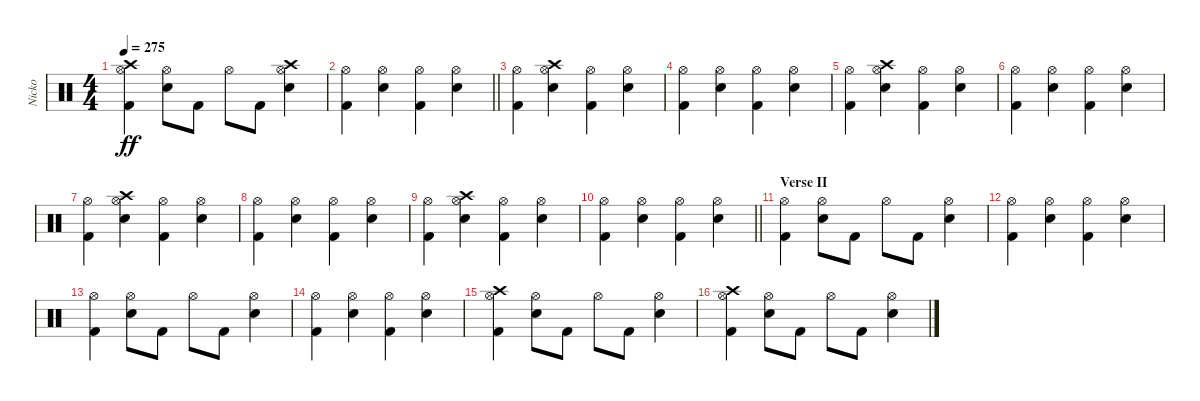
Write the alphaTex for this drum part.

\track ("Nicko" "Nicko") {instrument percussion}
\staff {score}
\articulation defaults
\ts (4 4)
\tempo 275
\clef neutral
\ks c
("Kick (hit) 2" "Hi-Hat (open)" "Crash high (hit)").4{dy ff} ("Snare (hit) 2" "Hi-Hat (open)").8 "Kick (hit) 2".8 "Hi-Hat (open)".8 "Kick (hit) 2".8 ("Snare (hit) 2" "Hi-Hat (open)" "Crash high (hit)").4 |
\barLineRight lightlight
("Kick (hit) 2" "Hi-Hat (open)").4 ("Snare (hit) 2" "Hi-Hat (open)").4 ("Kick (hit) 2" "Hi-Hat (open)").4 ("Snare (hit) 2" "Hi-Hat (open)").4 |
\section ("" "")
("Kick (hit) 2" "Hi-Hat (open)").4 ("Snare (hit) 2" "Hi-Hat (open)" "Crash high (hit)").4 ("Kick (hit) 2" "Hi-Hat (open)").4 ("Snare (hit) 2" "Hi-Hat (open)").4 |
("Kick (hit) 2" "Hi-Hat (open)").4 ("Snare (hit) 2" "Hi-Hat (open)").4 ("Kick (hit) 2" "Hi-Hat (open)").4 ("Snare (hit) 2" "Hi-Hat (open)").4 |
("Kick (hit) 2" "Hi-Hat (open)").4 ("Snare (hit) 2" "Hi-Hat (open)" "Crash high (hit)").4 ("Kick (hit) 2" "Hi-Hat (open)").4 ("Snare (hit) 2" "Hi-Hat (open)").4 |
("Kick (hit) 2" "Hi-Hat (open)").4 ("Snare (hit) 2" "Hi-Hat (open)").4 ("Kick (hit) 2" "Hi-Hat (open)").4 ("Snare (hit) 2" "Hi-Hat (open)").4 |
("Kick (hit) 2" "Hi-Hat (open)").4 ("Snare (hit) 2" "Hi-Hat (open)" "Crash high (hit)").4 ("Kick (hit) 2" "Hi-Hat (open)").4 ("Snare (hit) 2" "Hi-Hat (open)").4 |
("Kick (hit) 2" "Hi-Hat (open)").4 ("Snare (hit) 2" "Hi-Hat (open)").4 ("Kick (hit) 2" "Hi-Hat (open)").4 ("Snare (hit) 2" "Hi-Hat (open)").4 |
("Kick (hit) 2" "Hi-Hat (open)").4 ("Snare (hit) 2" "Hi-Hat (open)" "Crash high (hit)").4 ("Kick (hit) 2" "Hi-Hat (open)").4 ("Snare (hit) 2" "Hi-Hat (open)").4 |
\barLineRight lightlight
("Kick (hit) 2" "Hi-Hat (open)").4 ("Snare (hit) 2" "Hi-Hat (open)").4 ("Kick (hit) 2" "Hi-Hat (open)").4 ("Snare (hit) 2" "Hi-Hat (open)").4 |
\section ("" "Verse II")
("Kick (hit) 2" "Hi-Hat (open)").4 ("Snare (hit) 2" "Hi-Hat (open)").8 "Kick (hit) 2".8 "Hi-Hat (open)".8 "Kick (hit) 2".8 ("Snare (hit) 2" "Hi-Hat (open)").4 |
("Kick (hit) 2" "Hi-Hat (open)").4 ("Snare (hit) 2" "Hi-Hat (open)").4 ("Kick (hit) 2" "Hi-Hat (open)").4 ("Snare (hit) 2" "Hi-Hat (open)").4 |
("Kick (hit) 2" "Hi-Hat (open)").4 ("Snare (hit) 2" "Hi-Hat (open)").8 "Kick (hit) 2".8 "Hi-Hat (open)".8 "Kick (hit) 2".8 ("Snare (hit) 2" "Hi-Hat (open)").4 |
("Kick (hit) 2" "Hi-Hat (open)").4 ("Snare (hit) 2" "Hi-Hat (open)").4 ("Kick (hit) 2" "Hi-Hat (open)").4 ("Snare (hit) 2" "Hi-Hat (open)").4 |
("Kick (hit) 2" "Hi-Hat (open)" "Crash high (hit)").4 ("Snare (hit) 2" "Hi-Hat (open)").8 "Kick (hit) 2".8 "Hi-Hat (open)".8 "Kick (hit) 2".8 ("Snare (hit) 2" "Hi-Hat (open)").4 |
("Kick (hit) 2" "Hi-Hat (open)" "Crash high (hit)").4 ("Snare (hit) 2" "Hi-Hat (open)").8 "Kick (hit) 2".8 "Hi-Hat (open)".8 "Kick (hit) 2".8 ("Snare (hit) 2" "Hi-Hat (open)").4
